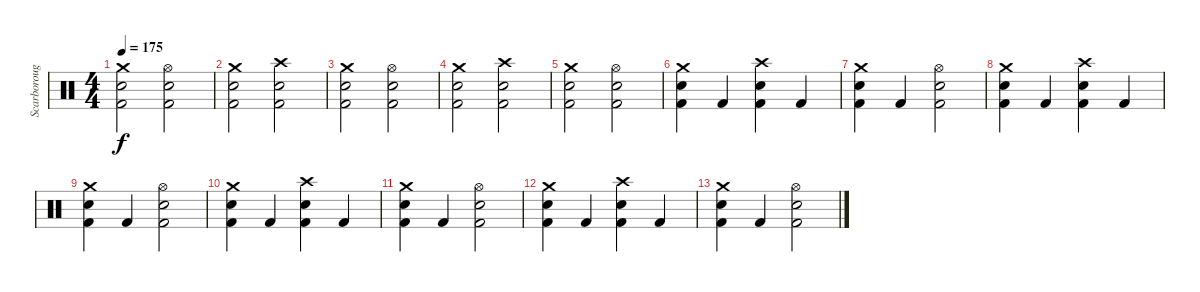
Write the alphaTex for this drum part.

\track ("Scarborough" "Scarboroug") {instrument percussion}
\staff {score}
\articulation defaults
\ts (4 4)
\tempo 175
\clef neutral
\ks c
("Crash medium (hit)" "Snare (hit) 2" "Kick (hit) 2").2{dy f} ("Hi-Hat (open)" "Snare (hit) 2" "Kick (hit) 2").2 |
("Crash medium (hit)" "Snare (hit) 2" "Kick (hit) 2").2 ("Crash high (hit)" "Snare (hit) 2" "Kick (hit) 2").2 |
("Crash medium (hit)" "Snare (hit) 2" "Kick (hit) 2").2 ("Hi-Hat (open)" "Snare (hit) 2" "Kick (hit) 2").2 |
("Crash medium (hit)" "Snare (hit) 2" "Kick (hit) 2").2 ("Crash high (hit)" "Snare (hit) 2" "Kick (hit) 2").2 |
("Crash medium (hit)" "Snare (hit) 2" "Kick (hit) 2").2 ("Hi-Hat (open)" "Snare (hit) 2" "Kick (hit) 2").2 |
("Crash medium (hit)" "Kick (hit) 2" "Snare (hit) 2").4 "Kick (hit) 2".4 ("Crash high (hit)" "Kick (hit) 2" "Snare (hit) 2").4 "Kick (hit) 2".4 |
("Crash medium (hit)" "Kick (hit) 2" "Snare (hit) 2").4 "Kick (hit) 2".4 ("Hi-Hat (open)" "Kick (hit) 2" "Snare (hit) 2").2 |
("Crash medium (hit)" "Kick (hit) 2" "Snare (hit) 2").4 "Kick (hit) 2".4 ("Crash high (hit)" "Kick (hit) 2" "Snare (hit) 2").4 "Kick (hit) 2".4 |
("Crash medium (hit)" "Kick (hit) 2" "Snare (hit) 2").4 "Kick (hit) 2".4 ("Hi-Hat (open)" "Kick (hit) 2" "Snare (hit) 2").2 |
("Crash medium (hit)" "Kick (hit) 2" "Snare (hit) 2").4 "Kick (hit) 2".4 ("Crash high (hit)" "Kick (hit) 2" "Snare (hit) 2").4 "Kick (hit) 2".4 |
("Crash medium (hit)" "Kick (hit) 2" "Snare (hit) 2").4 "Kick (hit) 2".4 ("Hi-Hat (open)" "Kick (hit) 2" "Snare (hit) 2").2 |
("Crash medium (hit)" "Kick (hit) 2" "Snare (hit) 2").4 "Kick (hit) 2".4 ("Crash high (hit)" "Kick (hit) 2" "Snare (hit) 2").4 "Kick (hit) 2".4 |
("Crash medium (hit)" "Kick (hit) 2" "Snare (hit) 2").4 "Kick (hit) 2".4 ("Hi-Hat (open)" "Kick (hit) 2" "Snare (hit) 2").2
